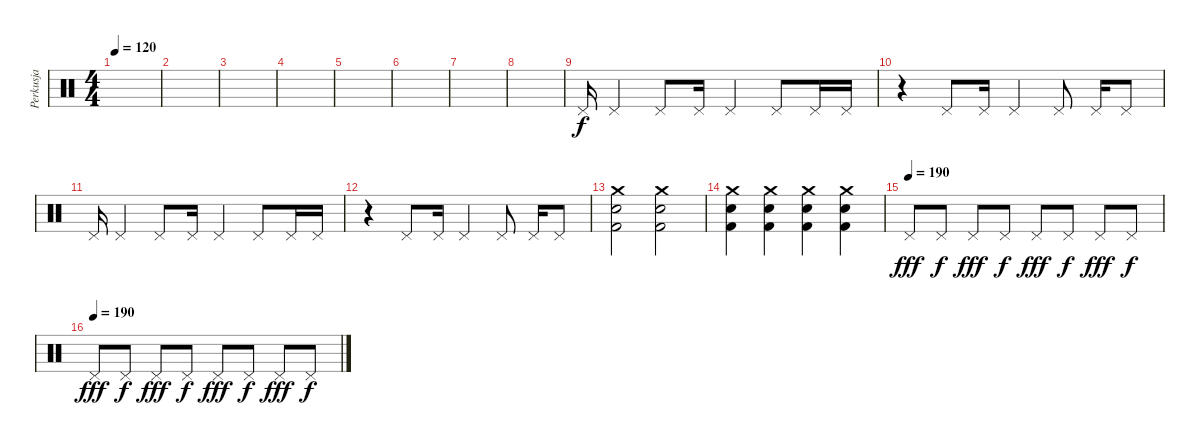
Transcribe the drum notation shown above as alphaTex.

\track ("Perkusja" "Perkusja") {instrument percussion}
\staff {score}
\articulation defaults
\ts (4 4)
\tempo 120
\clef neutral
\ks c
|
|
|
|
|
|
|
|
"Pedal Hi-Hat (hit)".16 "Pedal Hi-Hat (hit)".4 "Pedal Hi-Hat (hit)".8 "Pedal Hi-Hat (hit)".16 "Pedal Hi-Hat (hit)".4 "Pedal Hi-Hat (hit)".8 "Pedal Hi-Hat (hit)".16 "Pedal Hi-Hat (hit)".16 |
r.4 "Pedal Hi-Hat (hit)".8 "Pedal Hi-Hat (hit)".16 "Pedal Hi-Hat (hit)".4 "Pedal Hi-Hat (hit)".8 "Pedal Hi-Hat (hit)".16 "Pedal Hi-Hat (hit)".8 |
"Pedal Hi-Hat (hit)".16 "Pedal Hi-Hat (hit)".4 "Pedal Hi-Hat (hit)".8 "Pedal Hi-Hat (hit)".16 "Pedal Hi-Hat (hit)".4 "Pedal Hi-Hat (hit)".8 "Pedal Hi-Hat (hit)".16 "Pedal Hi-Hat (hit)".16 |
r.4 "Pedal Hi-Hat (hit)".8 "Pedal Hi-Hat (hit)".16 "Pedal Hi-Hat (hit)".4 "Pedal Hi-Hat (hit)".8 "Pedal Hi-Hat (hit)".16 "Pedal Hi-Hat (hit)".8 |
("Kick (hit) 2" "Snare (hit) 2" "Crash medium (hit)").2 ("Kick (hit) 2" "Snare (hit) 2" "Crash medium (hit)").2 |
("Kick (hit) 2" "Snare (hit) 2" "Crash medium (hit)").4 ("Kick (hit) 2" "Snare (hit) 2" "Crash medium (hit)").4 ("Kick (hit) 2" "Snare (hit) 2" "Crash medium (hit)").4 ("Kick (hit) 2" "Snare (hit) 2" "Crash medium (hit)").4 |
\tempo (190)
"Pedal Hi-Hat (hit)".8{dy fff} "Pedal Hi-Hat (hit)".8{dy f} "Pedal Hi-Hat (hit)".8{dy fff} "Pedal Hi-Hat (hit)".8{dy f} "Pedal Hi-Hat (hit)".8{dy fff} "Pedal Hi-Hat (hit)".8{dy f} "Pedal Hi-Hat (hit)".8{dy fff} "Pedal Hi-Hat (hit)".8{dy f} |
\tempo (190)
"Pedal Hi-Hat (hit)".8{dy fff} "Pedal Hi-Hat (hit)".8{dy f} "Pedal Hi-Hat (hit)".8{dy fff} "Pedal Hi-Hat (hit)".8{dy f} "Pedal Hi-Hat (hit)".8{dy fff} "Pedal Hi-Hat (hit)".8{dy f} "Pedal Hi-Hat (hit)".8{dy fff} "Pedal Hi-Hat (hit)".8{dy f}
